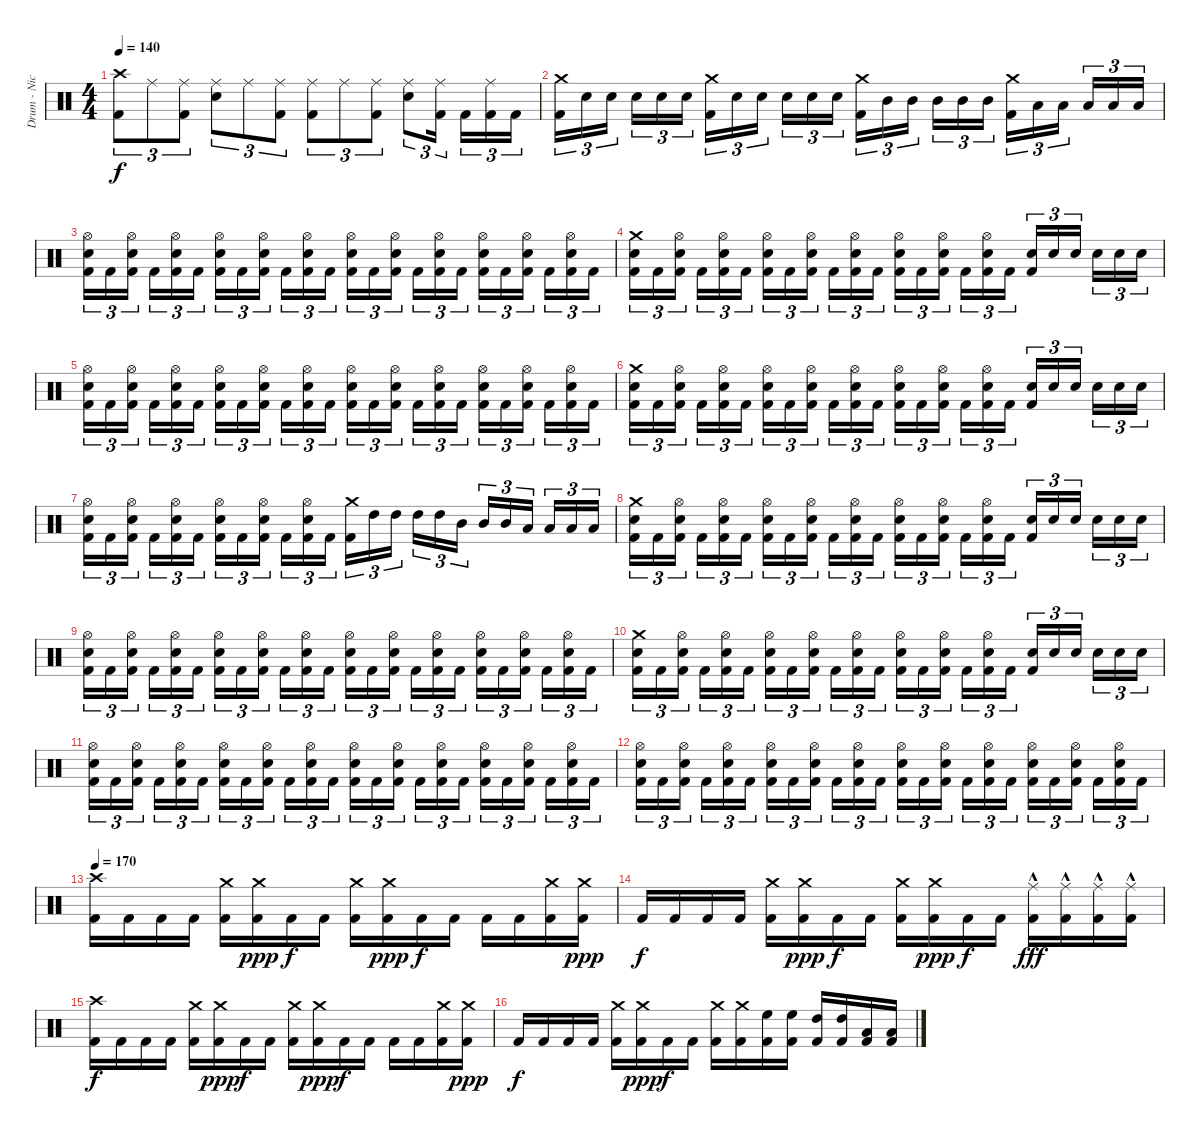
\track ("Drum - Nicholas" "Drum - Nic") {instrument percussion}
\staff {score}
\articulation defaults
\ts (4 4)
\tempo 140
\clef neutral
\ks c
("Crash high (hit)" "Kick (hit) 2").8{tu (3 2) dy f} "Ride (middle)".8{tu (3 2)} ("Ride (middle)" "Kick (hit) 2").8{tu (3 2)} ("Ride (middle)" "Snare (hit) 2").8{tu (3 2)} "Ride (middle)".8{tu (3 2)} ("Ride (middle)" "Kick (hit) 2").8{tu (3 2)} ("Ride (middle)" "Kick (hit) 2").8{tu (3 2)} "Ride (middle)".8{tu (3 2)} ("Ride (middle)" "Kick (hit) 2").8{tu (3 2)} ("Ride (middle)" "Snare (hit) 2").8{tu (3 2)} ("Ride (middle)" "Kick (hit) 2").16{tu (3 2) beam splitsecondary} "Kick (hit) 2".16{tu (3 2)} ("Ride (middle)" "Kick (hit) 2").16{tu (3 2)} "Kick (hit) 2".16{tu (3 2)} |
("Crash medium (hit)" "Kick (hit) 2").16{tu (3 2)} "Snare (hit) 2".16{tu (3 2)} "Snare (hit) 2".16{tu (3 2) beam splitsecondary} "Snare (hit) 2".16{tu (3 2)} "Snare (hit) 2".16{tu (3 2)} "Snare (hit) 2".16{tu (3 2)} ("Crash medium (hit)" "Kick (hit) 2").16{tu (3 2)} "Snare (hit) 2".16{tu (3 2)} "Snare (hit) 2".16{tu (3 2) beam splitsecondary} "Snare (hit) 2".16{tu (3 2)} "Snare (hit) 2".16{tu (3 2)} "Snare (hit) 2".16{tu (3 2)} ("Crash medium (hit)" "Kick (hit) 2").16{tu (3 2)} "Mid Tom (hit)".16{tu (3 2)} "Mid Tom (hit)".16{tu (3 2) beam splitsecondary} "Mid Tom (hit)".16{tu (3 2)} "Mid Tom (hit)".16{tu (3 2)} "Mid Tom (hit)".16{tu (3 2)} ("Crash medium (hit)" "Kick (hit) 2").16{tu (3 2)} "Low Tom (hit)".16{tu (3 2)} "Low Tom (hit)".16{tu (3 2) beam splitsecondary} "Low Tom (hit)".16{tu (3 2)} "Low Tom (hit)".16{tu (3 2)} "Low Tom (hit)".16{tu (3 2)} |
("Hi-Hat (open)" "Snare (hit) 2" "Kick (hit) 2").16{tu (3 2)} "Kick (hit) 2".16{tu (3 2)} ("Hi-Hat (open)" "Snare (hit) 2" "Kick (hit) 2").16{tu (3 2) beam splitsecondary} "Kick (hit) 2".16{tu (3 2)} ("Hi-Hat (open)" "Snare (hit) 2" "Kick (hit) 2").16{tu (3 2)} "Kick (hit) 2".16{tu (3 2)} ("Hi-Hat (open)" "Snare (hit) 2" "Kick (hit) 2").16{tu (3 2)} "Kick (hit) 2".16{tu (3 2)} ("Hi-Hat (open)" "Snare (hit) 2" "Kick (hit) 2").16{tu (3 2) beam splitsecondary} "Kick (hit) 2".16{tu (3 2)} ("Hi-Hat (open)" "Snare (hit) 2" "Kick (hit) 2").16{tu (3 2)} "Kick (hit) 2".16{tu (3 2)} ("Hi-Hat (open)" "Snare (hit) 2" "Kick (hit) 2").16{tu (3 2)} "Kick (hit) 2".16{tu (3 2)} ("Hi-Hat (open)" "Snare (hit) 2" "Kick (hit) 2").16{tu (3 2) beam splitsecondary} "Kick (hit) 2".16{tu (3 2)} ("Hi-Hat (open)" "Snare (hit) 2" "Kick (hit) 2").16{tu (3 2)} "Kick (hit) 2".16{tu (3 2)} ("Hi-Hat (open)" "Snare (hit) 2" "Kick (hit) 2").16{tu (3 2)} "Kick (hit) 2".16{tu (3 2)} ("Hi-Hat (open)" "Snare (hit) 2" "Kick (hit) 2").16{tu (3 2) beam splitsecondary} "Kick (hit) 2".16{tu (3 2)} ("Hi-Hat (open)" "Snare (hit) 2" "Kick (hit) 2").16{tu (3 2)} "Kick (hit) 2".16{tu (3 2)} |
("Crash medium (hit)" "Snare (hit) 2" "Kick (hit) 2").16{tu (3 2)} "Kick (hit) 2".16{tu (3 2)} ("Hi-Hat (open)" "Snare (hit) 2" "Kick (hit) 2").16{tu (3 2) beam splitsecondary} "Kick (hit) 2".16{tu (3 2)} ("Hi-Hat (open)" "Snare (hit) 2" "Kick (hit) 2").16{tu (3 2)} "Kick (hit) 2".16{tu (3 2)} ("Hi-Hat (open)" "Snare (hit) 2" "Kick (hit) 2").16{tu (3 2)} "Kick (hit) 2".16{tu (3 2)} ("Hi-Hat (open)" "Snare (hit) 2" "Kick (hit) 2").16{tu (3 2) beam splitsecondary} "Kick (hit) 2".16{tu (3 2)} ("Hi-Hat (open)" "Snare (hit) 2" "Kick (hit) 2").16{tu (3 2)} "Kick (hit) 2".16{tu (3 2)} ("Hi-Hat (open)" "Snare (hit) 2" "Kick (hit) 2").16{tu (3 2)} "Kick (hit) 2".16{tu (3 2)} ("Hi-Hat (open)" "Snare (hit) 2" "Kick (hit) 2").16{tu (3 2) beam splitsecondary} "Kick (hit) 2".16{tu (3 2)} ("Hi-Hat (open)" "Snare (hit) 2" "Kick (hit) 2").16{tu (3 2)} "Kick (hit) 2".16{tu (3 2)} ("Snare (hit) 2" "Kick (hit) 2").16{tu (3 2)} "Snare (hit) 2".16{tu (3 2)} "Snare (hit) 2".16{tu (3 2) beam splitsecondary} "Snare (hit) 2".16{tu (3 2)} "Snare (hit) 2".16{tu (3 2)} "Snare (hit) 2".16{tu (3 2)} |
("Hi-Hat (open)" "Snare (hit) 2" "Kick (hit) 2").16{tu (3 2)} "Kick (hit) 2".16{tu (3 2)} ("Hi-Hat (open)" "Snare (hit) 2" "Kick (hit) 2").16{tu (3 2) beam splitsecondary} "Kick (hit) 2".16{tu (3 2)} ("Hi-Hat (open)" "Snare (hit) 2" "Kick (hit) 2").16{tu (3 2)} "Kick (hit) 2".16{tu (3 2)} ("Hi-Hat (open)" "Snare (hit) 2" "Kick (hit) 2").16{tu (3 2)} "Kick (hit) 2".16{tu (3 2)} ("Hi-Hat (open)" "Snare (hit) 2" "Kick (hit) 2").16{tu (3 2) beam splitsecondary} "Kick (hit) 2".16{tu (3 2)} ("Hi-Hat (open)" "Snare (hit) 2" "Kick (hit) 2").16{tu (3 2)} "Kick (hit) 2".16{tu (3 2)} ("Hi-Hat (open)" "Snare (hit) 2" "Kick (hit) 2").16{tu (3 2)} "Kick (hit) 2".16{tu (3 2)} ("Hi-Hat (open)" "Snare (hit) 2" "Kick (hit) 2").16{tu (3 2) beam splitsecondary} "Kick (hit) 2".16{tu (3 2)} ("Hi-Hat (open)" "Snare (hit) 2" "Kick (hit) 2").16{tu (3 2)} "Kick (hit) 2".16{tu (3 2)} ("Hi-Hat (open)" "Snare (hit) 2" "Kick (hit) 2").16{tu (3 2)} "Kick (hit) 2".16{tu (3 2)} ("Hi-Hat (open)" "Snare (hit) 2" "Kick (hit) 2").16{tu (3 2) beam splitsecondary} "Kick (hit) 2".16{tu (3 2)} ("Hi-Hat (open)" "Snare (hit) 2" "Kick (hit) 2").16{tu (3 2)} "Kick (hit) 2".16{tu (3 2)} |
("Crash medium (hit)" "Snare (hit) 2" "Kick (hit) 2").16{tu (3 2)} "Kick (hit) 2".16{tu (3 2)} ("Hi-Hat (open)" "Snare (hit) 2" "Kick (hit) 2").16{tu (3 2) beam splitsecondary} "Kick (hit) 2".16{tu (3 2)} ("Hi-Hat (open)" "Snare (hit) 2" "Kick (hit) 2").16{tu (3 2)} "Kick (hit) 2".16{tu (3 2)} ("Hi-Hat (open)" "Snare (hit) 2" "Kick (hit) 2").16{tu (3 2)} "Kick (hit) 2".16{tu (3 2)} ("Hi-Hat (open)" "Snare (hit) 2" "Kick (hit) 2").16{tu (3 2) beam splitsecondary} "Kick (hit) 2".16{tu (3 2)} ("Hi-Hat (open)" "Snare (hit) 2" "Kick (hit) 2").16{tu (3 2)} "Kick (hit) 2".16{tu (3 2)} ("Hi-Hat (open)" "Snare (hit) 2" "Kick (hit) 2").16{tu (3 2)} "Kick (hit) 2".16{tu (3 2)} ("Hi-Hat (open)" "Snare (hit) 2" "Kick (hit) 2").16{tu (3 2) beam splitsecondary} "Kick (hit) 2".16{tu (3 2)} ("Hi-Hat (open)" "Snare (hit) 2" "Kick (hit) 2").16{tu (3 2)} "Kick (hit) 2".16{tu (3 2)} ("Snare (hit) 2" "Kick (hit) 2").16{tu (3 2)} "Snare (hit) 2".16{tu (3 2)} "Snare (hit) 2".16{tu (3 2) beam splitsecondary} "Snare (hit) 2".16{tu (3 2)} "Snare (hit) 2".16{tu (3 2)} "Snare (hit) 2".16{tu (3 2)} |
("Hi-Hat (open)" "Snare (hit) 2" "Kick (hit) 2").16{tu (3 2)} "Kick (hit) 2".16{tu (3 2)} ("Hi-Hat (open)" "Snare (hit) 2" "Kick (hit) 2").16{tu (3 2) beam splitsecondary} "Kick (hit) 2".16{tu (3 2)} ("Hi-Hat (open)" "Snare (hit) 2" "Kick (hit) 2").16{tu (3 2)} "Kick (hit) 2".16{tu (3 2)} ("Hi-Hat (open)" "Snare (hit) 2" "Kick (hit) 2").16{tu (3 2)} "Kick (hit) 2".16{tu (3 2)} ("Hi-Hat (open)" "Snare (hit) 2" "Kick (hit) 2").16{tu (3 2) beam splitsecondary} "Kick (hit) 2".16{tu (3 2)} ("Hi-Hat (open)" "Snare (hit) 2" "Kick (hit) 2").16{tu (3 2)} "Kick (hit) 2".16{tu (3 2)} ("Crash medium (hit)" "Kick (hit) 2").16{tu (3 2)} "High Tom (hit)".16{tu (3 2)} "High Tom (hit)".16{tu (3 2) beam splitsecondary} "High Tom (hit)".16{tu (3 2)} "High Tom (hit)".16{tu (3 2)} "Mid Tom (hit)".16{tu (3 2)} "Mid Tom (hit)".16{tu (3 2)} "Mid Tom (hit)".16{tu (3 2)} "Low Tom (hit)".16{tu (3 2) beam splitsecondary} "Low Tom (hit)".16{tu (3 2)} "Low Tom (hit)".16{tu (3 2)} "Low Tom (hit)".16{tu (3 2)} |
("Crash medium (hit)" "Snare (hit) 2" "Kick (hit) 2").16{tu (3 2)} "Kick (hit) 2".16{tu (3 2)} ("Hi-Hat (open)" "Snare (hit) 2" "Kick (hit) 2").16{tu (3 2) beam splitsecondary} "Kick (hit) 2".16{tu (3 2)} ("Hi-Hat (open)" "Snare (hit) 2" "Kick (hit) 2").16{tu (3 2)} "Kick (hit) 2".16{tu (3 2)} ("Hi-Hat (open)" "Snare (hit) 2" "Kick (hit) 2").16{tu (3 2)} "Kick (hit) 2".16{tu (3 2)} ("Hi-Hat (open)" "Snare (hit) 2" "Kick (hit) 2").16{tu (3 2) beam splitsecondary} "Kick (hit) 2".16{tu (3 2)} ("Hi-Hat (open)" "Snare (hit) 2" "Kick (hit) 2").16{tu (3 2)} "Kick (hit) 2".16{tu (3 2)} ("Hi-Hat (open)" "Snare (hit) 2" "Kick (hit) 2").16{tu (3 2)} "Kick (hit) 2".16{tu (3 2)} ("Hi-Hat (open)" "Snare (hit) 2" "Kick (hit) 2").16{tu (3 2) beam splitsecondary} "Kick (hit) 2".16{tu (3 2)} ("Hi-Hat (open)" "Snare (hit) 2" "Kick (hit) 2").16{tu (3 2)} "Kick (hit) 2".16{tu (3 2)} ("Snare (hit) 2" "Kick (hit) 2").16{tu (3 2)} "Snare (hit) 2".16{tu (3 2)} "Snare (hit) 2".16{tu (3 2) beam splitsecondary} "Snare (hit) 2".16{tu (3 2)} "Snare (hit) 2".16{tu (3 2)} "Snare (hit) 2".16{tu (3 2)} |
("Hi-Hat (open)" "Snare (hit) 2" "Kick (hit) 2").16{tu (3 2)} "Kick (hit) 2".16{tu (3 2)} ("Hi-Hat (open)" "Snare (hit) 2" "Kick (hit) 2").16{tu (3 2) beam splitsecondary} "Kick (hit) 2".16{tu (3 2)} ("Hi-Hat (open)" "Snare (hit) 2" "Kick (hit) 2").16{tu (3 2)} "Kick (hit) 2".16{tu (3 2)} ("Hi-Hat (open)" "Snare (hit) 2" "Kick (hit) 2").16{tu (3 2)} "Kick (hit) 2".16{tu (3 2)} ("Hi-Hat (open)" "Snare (hit) 2" "Kick (hit) 2").16{tu (3 2) beam splitsecondary} "Kick (hit) 2".16{tu (3 2)} ("Hi-Hat (open)" "Snare (hit) 2" "Kick (hit) 2").16{tu (3 2)} "Kick (hit) 2".16{tu (3 2)} ("Hi-Hat (open)" "Snare (hit) 2" "Kick (hit) 2").16{tu (3 2)} "Kick (hit) 2".16{tu (3 2)} ("Hi-Hat (open)" "Snare (hit) 2" "Kick (hit) 2").16{tu (3 2) beam splitsecondary} "Kick (hit) 2".16{tu (3 2)} ("Hi-Hat (open)" "Snare (hit) 2" "Kick (hit) 2").16{tu (3 2)} "Kick (hit) 2".16{tu (3 2)} ("Hi-Hat (open)" "Snare (hit) 2" "Kick (hit) 2").16{tu (3 2)} "Kick (hit) 2".16{tu (3 2)} ("Hi-Hat (open)" "Snare (hit) 2" "Kick (hit) 2").16{tu (3 2) beam splitsecondary} "Kick (hit) 2".16{tu (3 2)} ("Hi-Hat (open)" "Snare (hit) 2" "Kick (hit) 2").16{tu (3 2)} "Kick (hit) 2".16{tu (3 2)} |
("Crash medium (hit)" "Snare (hit) 2" "Kick (hit) 2").16{tu (3 2)} "Kick (hit) 2".16{tu (3 2)} ("Hi-Hat (open)" "Snare (hit) 2" "Kick (hit) 2").16{tu (3 2) beam splitsecondary} "Kick (hit) 2".16{tu (3 2)} ("Hi-Hat (open)" "Snare (hit) 2" "Kick (hit) 2").16{tu (3 2)} "Kick (hit) 2".16{tu (3 2)} ("Hi-Hat (open)" "Snare (hit) 2" "Kick (hit) 2").16{tu (3 2)} "Kick (hit) 2".16{tu (3 2)} ("Hi-Hat (open)" "Snare (hit) 2" "Kick (hit) 2").16{tu (3 2) beam splitsecondary} "Kick (hit) 2".16{tu (3 2)} ("Hi-Hat (open)" "Snare (hit) 2" "Kick (hit) 2").16{tu (3 2)} "Kick (hit) 2".16{tu (3 2)} ("Hi-Hat (open)" "Snare (hit) 2" "Kick (hit) 2").16{tu (3 2)} "Kick (hit) 2".16{tu (3 2)} ("Hi-Hat (open)" "Snare (hit) 2" "Kick (hit) 2").16{tu (3 2) beam splitsecondary} "Kick (hit) 2".16{tu (3 2)} ("Hi-Hat (open)" "Snare (hit) 2" "Kick (hit) 2").16{tu (3 2)} "Kick (hit) 2".16{tu (3 2)} ("Snare (hit) 2" "Kick (hit) 2").16{tu (3 2)} "Snare (hit) 2".16{tu (3 2)} "Snare (hit) 2".16{tu (3 2) beam splitsecondary} "Snare (hit) 2".16{tu (3 2)} "Snare (hit) 2".16{tu (3 2)} "Snare (hit) 2".16{tu (3 2)} |
("Hi-Hat (open)" "Snare (hit) 2" "Kick (hit) 2").16{tu (3 2)} "Kick (hit) 2".16{tu (3 2)} ("Hi-Hat (open)" "Snare (hit) 2" "Kick (hit) 2").16{tu (3 2) beam splitsecondary} "Kick (hit) 2".16{tu (3 2)} ("Hi-Hat (open)" "Snare (hit) 2" "Kick (hit) 2").16{tu (3 2)} "Kick (hit) 2".16{tu (3 2)} ("Hi-Hat (open)" "Snare (hit) 2" "Kick (hit) 2").16{tu (3 2)} "Kick (hit) 2".16{tu (3 2)} ("Hi-Hat (open)" "Snare (hit) 2" "Kick (hit) 2").16{tu (3 2) beam splitsecondary} "Kick (hit) 2".16{tu (3 2)} ("Hi-Hat (open)" "Snare (hit) 2" "Kick (hit) 2").16{tu (3 2)} "Kick (hit) 2".16{tu (3 2)} ("Hi-Hat (open)" "Snare (hit) 2" "Kick (hit) 2").16{tu (3 2)} "Kick (hit) 2".16{tu (3 2)} ("Hi-Hat (open)" "Snare (hit) 2" "Kick (hit) 2").16{tu (3 2) beam splitsecondary} "Kick (hit) 2".16{tu (3 2)} ("Hi-Hat (open)" "Snare (hit) 2" "Kick (hit) 2").16{tu (3 2)} "Kick (hit) 2".16{tu (3 2)} ("Hi-Hat (open)" "Snare (hit) 2" "Kick (hit) 2").16{tu (3 2)} "Kick (hit) 2".16{tu (3 2)} ("Hi-Hat (open)" "Snare (hit) 2" "Kick (hit) 2").16{tu (3 2) beam splitsecondary} "Kick (hit) 2".16{tu (3 2)} ("Hi-Hat (open)" "Snare (hit) 2" "Kick (hit) 2").16{tu (3 2)} "Kick (hit) 2".16{tu (3 2)} |
("Hi-Hat (open)" "Snare (hit) 2" "Kick (hit) 2").16{tu (3 2)} "Kick (hit) 2".16{tu (3 2)} ("Hi-Hat (open)" "Snare (hit) 2" "Kick (hit) 2").16{tu (3 2) beam splitsecondary} "Kick (hit) 2".16{tu (3 2)} ("Hi-Hat (open)" "Snare (hit) 2" "Kick (hit) 2").16{tu (3 2)} "Kick (hit) 2".16{tu (3 2)} ("Hi-Hat (open)" "Snare (hit) 2" "Kick (hit) 2").16{tu (3 2)} "Kick (hit) 2".16{tu (3 2)} ("Hi-Hat (open)" "Snare (hit) 2" "Kick (hit) 2").16{tu (3 2) beam splitsecondary} "Kick (hit) 2".16{tu (3 2)} ("Hi-Hat (open)" "Snare (hit) 2" "Kick (hit) 2").16{tu (3 2)} "Kick (hit) 2".16{tu (3 2)} ("Hi-Hat (open)" "Snare (hit) 2" "Kick (hit) 2").16{tu (3 2)} "Kick (hit) 2".16{tu (3 2)} ("Hi-Hat (open)" "Snare (hit) 2" "Kick (hit) 2").16{tu (3 2) beam splitsecondary} "Kick (hit) 2".16{tu (3 2)} ("Hi-Hat (open)" "Snare (hit) 2" "Kick (hit) 2").16{tu (3 2)} "Kick (hit) 2".16{tu (3 2)} ("Hi-Hat (open)" "Snare (hit) 2" "Kick (hit) 2").16{tu (3 2)} "Kick (hit) 2".16{tu (3 2)} ("Hi-Hat (open)" "Snare (hit) 2" "Kick (hit) 2").16{tu (3 2) beam splitsecondary} "Kick (hit) 2".16{tu (3 2)} ("Hi-Hat (open)" "Snare (hit) 2" "Kick (hit) 2").16{tu (3 2)} "Kick (hit) 2".16{tu (3 2)} |
\tempo 170
("Crash high (hit)" "Kick (hit) 2").16 "Kick (hit) 2".16 "Kick (hit) 2".16 "Kick (hit) 2".16 ("Crash medium (hit)" "Kick (hit) 2").16 ("Crash medium (hit)" "Kick (hit) 2").16{dy ppp} "Kick (hit) 2".16{dy f} "Kick (hit) 2".16 ("Crash medium (hit)" "Kick (hit) 2").16 ("Crash medium (hit)" "Kick (hit) 2").16{dy ppp} "Kick (hit) 2".16{dy f} "Kick (hit) 2".16 "Kick (hit) 2".16 "Kick (hit) 2".16 ("Crash medium (hit)" "Kick (hit) 2").16 ("Crash medium (hit)" "Kick (hit) 2").16{dy ppp} |
"Kick (hit) 2".16{dy f} "Kick (hit) 2".16 "Kick (hit) 2".16 "Kick (hit) 2".16 ("Crash medium (hit)" "Kick (hit) 2").16 ("Crash medium (hit)" "Kick (hit) 2").16{dy ppp} "Kick (hit) 2".16{dy f} "Kick (hit) 2".16 ("Crash medium (hit)" "Kick (hit) 2").16 ("Crash medium (hit)" "Kick (hit) 2").16{dy ppp} "Kick (hit) 2".16{dy f} "Kick (hit) 2".16 ("Ride (middle)"{hac} "Kick (hit) 2").16{dy fff} ("Ride (middle)"{hac} "Kick (hit) 2").16 ("Ride (middle)"{hac} "Kick (hit) 2").16 ("Ride (middle)"{hac} "Kick (hit) 2").16 |
("Crash high (hit)" "Kick (hit) 2").16{dy f} "Kick (hit) 2".16 "Kick (hit) 2".16 "Kick (hit) 2".16 ("Crash medium (hit)" "Kick (hit) 2").16 ("Crash medium (hit)" "Kick (hit) 2").16{dy ppp} "Kick (hit) 2".16{dy f} "Kick (hit) 2".16 ("Crash medium (hit)" "Kick (hit) 2").16 ("Crash medium (hit)" "Kick (hit) 2").16{dy ppp} "Kick (hit) 2".16{dy f} "Kick (hit) 2".16 "Kick (hit) 2".16 "Kick (hit) 2".16 ("Crash medium (hit)" "Kick (hit) 2").16 ("Crash medium (hit)" "Kick (hit) 2").16{dy ppp} |
"Kick (hit) 2".16{dy f} "Kick (hit) 2".16 "Kick (hit) 2".16 "Kick (hit) 2".16 ("Crash medium (hit)" "Kick (hit) 2").16 ("Crash medium (hit)" "Kick (hit) 2").16{dy ppp} "Kick (hit) 2".16{dy f} "Kick (hit) 2".16 ("Crash medium (hit)" "Kick (hit) 2").16 ("Crash medium (hit)" "Kick (hit) 2").16 ("High Floor Tom (hit)" "Kick (hit) 2").16 ("High Floor Tom (hit)" "Kick (hit) 2").16 ("High Tom (hit)" "Kick (hit) 2").16 ("High Tom (hit)" "Kick (hit) 2").16 ("Low Tom (hit)" "Kick (hit) 2").16 ("Low Tom (hit)" "Kick (hit) 2").16
